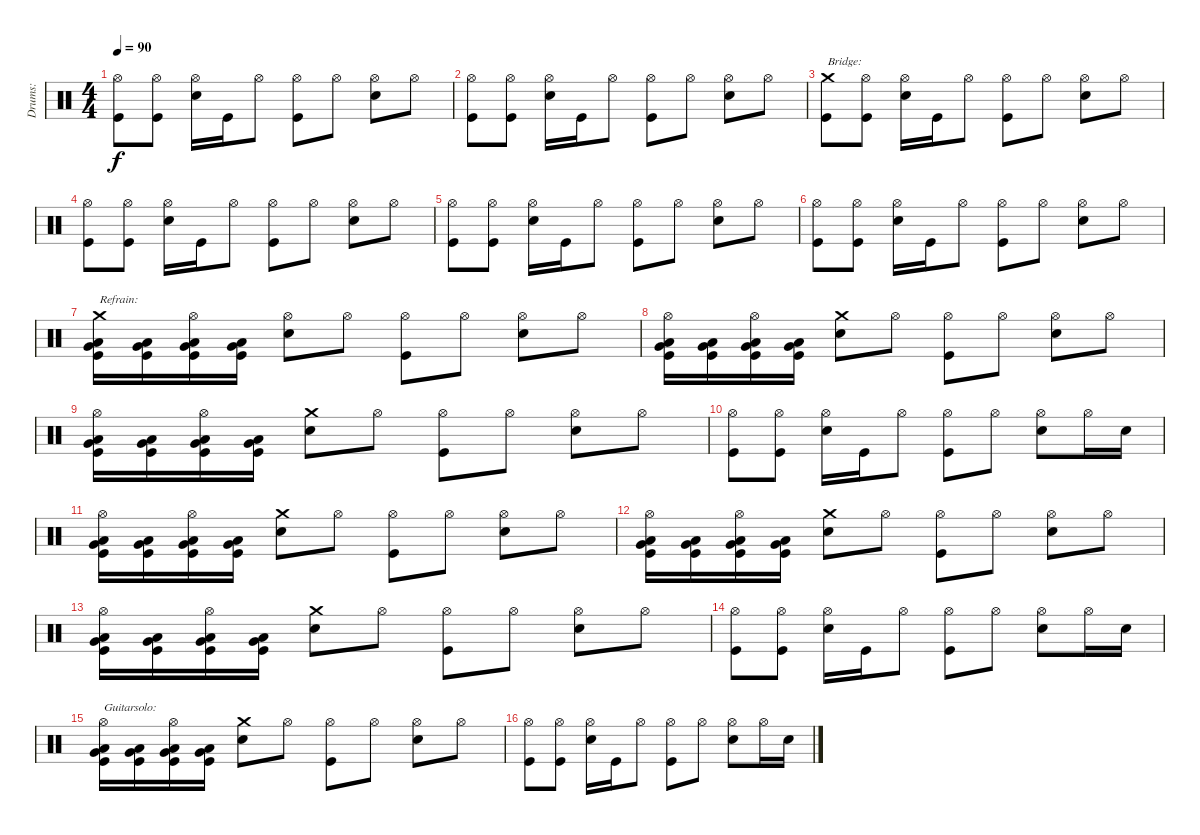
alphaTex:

\track ("Drums:" "Drums:") {instrument percussion}
\staff {score}
\articulation defaults
\ts (4 4)
\tempo 90
\clef neutral
\ks c
("Hi-Hat (open)" "Kick (hit)").8{dy f} ("Hi-Hat (open)" "Kick (hit)").8 ("Hi-Hat (open)" "Snare (hit) 2").16 "Kick (hit)".16 "Hi-Hat (open)".8 ("Hi-Hat (open)" "Kick (hit)").8 "Hi-Hat (open)".8 ("Hi-Hat (open)" "Snare (hit) 2").8 "Hi-Hat (open)".8 |
("Hi-Hat (open)" "Kick (hit)").8 ("Hi-Hat (open)" "Kick (hit)").8 ("Hi-Hat (open)" "Snare (hit) 2").16 "Kick (hit)".16 "Hi-Hat (open)".8 ("Hi-Hat (open)" "Kick (hit)").8 "Hi-Hat (open)".8 ("Hi-Hat (open)" "Snare (hit) 2").8 "Hi-Hat (open)".8 |
("Crash medium (hit)" "Kick (hit)").8{txt "Bridge:"} ("Hi-Hat (open)" "Kick (hit)").8 ("Hi-Hat (open)" "Snare (hit) 2").16 "Kick (hit)".16 "Hi-Hat (open)".8 ("Hi-Hat (open)" "Kick (hit)").8 "Hi-Hat (open)".8 ("Hi-Hat (open)" "Snare (hit) 2").8 "Hi-Hat (open)".8 |
("Hi-Hat (open)" "Kick (hit)").8 ("Hi-Hat (open)" "Kick (hit)").8 ("Hi-Hat (open)" "Snare (hit) 2").16 "Kick (hit)".16 "Hi-Hat (open)".8 ("Hi-Hat (open)" "Kick (hit)").8 "Hi-Hat (open)".8 ("Hi-Hat (open)" "Snare (hit) 2").8 "Hi-Hat (open)".8 |
("Hi-Hat (open)" "Kick (hit)").8 ("Hi-Hat (open)" "Kick (hit)").8 ("Hi-Hat (open)" "Snare (hit) 2").16 "Kick (hit)".16 "Hi-Hat (open)".8 ("Hi-Hat (open)" "Kick (hit)").8 "Hi-Hat (open)".8 ("Hi-Hat (open)" "Snare (hit) 2").8 "Hi-Hat (open)".8 |
("Hi-Hat (open)" "Kick (hit)").8 ("Hi-Hat (open)" "Kick (hit)").8 ("Hi-Hat (open)" "Snare (hit) 2").16 "Kick (hit)".16 "Hi-Hat (open)".8 ("Hi-Hat (open)" "Kick (hit)").8 "Hi-Hat (open)".8 ("Hi-Hat (open)" "Snare (hit) 2").8 "Hi-Hat (open)".8 |
("Crash medium (hit)" "Very Low Tom (hit)" "Low Floor Tom (hit)" "Kick (hit)").16{txt "Refrain:"} ("Very Low Tom (hit)" "Low Floor Tom (hit)" "Kick (hit)").16 ("Hi-Hat (open)" "Very Low Tom (hit)" "Low Floor Tom (hit)" "Kick (hit)").16 ("Very Low Tom (hit)" "Low Floor Tom (hit)" "Kick (hit)").16 ("Hi-Hat (open)" "Snare (hit) 2").8 "Hi-Hat (open)".8 ("Hi-Hat (open)" "Kick (hit)").8 "Hi-Hat (open)".8 ("Hi-Hat (open)" "Snare (hit) 2").8 "Hi-Hat (open)".8 |
("Hi-Hat (open)" "Very Low Tom (hit)" "Low Floor Tom (hit)" "Kick (hit)").16 ("Very Low Tom (hit)" "Low Floor Tom (hit)" "Kick (hit)").16 ("Hi-Hat (open)" "Very Low Tom (hit)" "Low Floor Tom (hit)" "Kick (hit)").16 ("Very Low Tom (hit)" "Low Floor Tom (hit)" "Kick (hit)").16 ("Crash medium (hit)" "Snare (hit) 2").8 "Hi-Hat (open)".8 ("Hi-Hat (open)" "Kick (hit)").8 "Hi-Hat (open)".8 ("Hi-Hat (open)" "Snare (hit) 2").8 "Hi-Hat (open)".8 |
("Hi-Hat (open)" "Very Low Tom (hit)" "Low Floor Tom (hit)" "Kick (hit)").16 ("Very Low Tom (hit)" "Low Floor Tom (hit)" "Kick (hit)").16 ("Hi-Hat (open)" "Very Low Tom (hit)" "Low Floor Tom (hit)" "Kick (hit)").16 ("Very Low Tom (hit)" "Low Floor Tom (hit)" "Kick (hit)").16 ("Crash medium (hit)" "Snare (hit) 2").8 "Hi-Hat (open)".8 ("Hi-Hat (open)" "Kick (hit)").8 "Hi-Hat (open)".8 ("Hi-Hat (open)" "Snare (hit) 2").8 "Hi-Hat (open)".8 |
("Hi-Hat (open)" "Kick (hit)").8 ("Hi-Hat (open)" "Kick (hit)").8 ("Hi-Hat (open)" "Snare (hit) 2").16 "Kick (hit)".16 "Hi-Hat (open)".8 ("Hi-Hat (open)" "Kick (hit)").8 "Hi-Hat (open)".8 ("Hi-Hat (open)" "Snare (hit) 2").8 "Hi-Hat (open)".16 "Snare (hit) 2".16 |
("Hi-Hat (open)" "Very Low Tom (hit)" "Low Floor Tom (hit)" "Kick (hit)").16 ("Very Low Tom (hit)" "Low Floor Tom (hit)" "Kick (hit)").16 ("Hi-Hat (open)" "Very Low Tom (hit)" "Low Floor Tom (hit)" "Kick (hit)").16 ("Very Low Tom (hit)" "Low Floor Tom (hit)" "Kick (hit)").16 ("Crash medium (hit)" "Snare (hit) 2").8 "Hi-Hat (open)".8 ("Hi-Hat (open)" "Kick (hit)").8 "Hi-Hat (open)".8 ("Hi-Hat (open)" "Snare (hit) 2").8 "Hi-Hat (open)".8 |
("Hi-Hat (open)" "Very Low Tom (hit)" "Low Floor Tom (hit)" "Kick (hit)").16 ("Very Low Tom (hit)" "Low Floor Tom (hit)" "Kick (hit)").16 ("Hi-Hat (open)" "Very Low Tom (hit)" "Low Floor Tom (hit)" "Kick (hit)").16 ("Very Low Tom (hit)" "Low Floor Tom (hit)" "Kick (hit)").16 ("Crash medium (hit)" "Snare (hit) 2").8 "Hi-Hat (open)".8 ("Hi-Hat (open)" "Kick (hit)").8 "Hi-Hat (open)".8 ("Hi-Hat (open)" "Snare (hit) 2").8 "Hi-Hat (open)".8 |
("Hi-Hat (open)" "Very Low Tom (hit)" "Low Floor Tom (hit)" "Kick (hit)").16 ("Very Low Tom (hit)" "Low Floor Tom (hit)" "Kick (hit)").16 ("Hi-Hat (open)" "Very Low Tom (hit)" "Low Floor Tom (hit)" "Kick (hit)").16 ("Very Low Tom (hit)" "Low Floor Tom (hit)" "Kick (hit)").16 ("Crash medium (hit)" "Snare (hit) 2").8 "Hi-Hat (open)".8 ("Hi-Hat (open)" "Kick (hit)").8 "Hi-Hat (open)".8 ("Hi-Hat (open)" "Snare (hit) 2").8 "Hi-Hat (open)".8 |
("Hi-Hat (open)" "Kick (hit)").8 ("Hi-Hat (open)" "Kick (hit)").8 ("Hi-Hat (open)" "Snare (hit) 2").16 "Kick (hit)".16 "Hi-Hat (open)".8 ("Hi-Hat (open)" "Kick (hit)").8 "Hi-Hat (open)".8 ("Hi-Hat (open)" "Snare (hit) 2").8 "Hi-Hat (open)".16 "Snare (hit) 2".16 |
("Hi-Hat (open)" "Very Low Tom (hit)" "Low Floor Tom (hit)" "Kick (hit)").16{txt "Guitarsolo:"} ("Very Low Tom (hit)" "Low Floor Tom (hit)" "Kick (hit)").16 ("Hi-Hat (open)" "Very Low Tom (hit)" "Low Floor Tom (hit)" "Kick (hit)").16 ("Very Low Tom (hit)" "Low Floor Tom (hit)" "Kick (hit)").16 ("Crash medium (hit)" "Snare (hit) 2").8 "Hi-Hat (open)".8 ("Hi-Hat (open)" "Kick (hit)").8 "Hi-Hat (open)".8 ("Hi-Hat (open)" "Snare (hit) 2").8 "Hi-Hat (open)".8 |
("Hi-Hat (open)" "Kick (hit)").8 ("Hi-Hat (open)" "Kick (hit)").8 ("Hi-Hat (open)" "Snare (hit) 2").16 "Kick (hit)".16 "Hi-Hat (open)".8 ("Hi-Hat (open)" "Kick (hit)").8 "Hi-Hat (open)".8 ("Hi-Hat (open)" "Snare (hit) 2").8 "Hi-Hat (open)".16 "Snare (hit) 2".16
